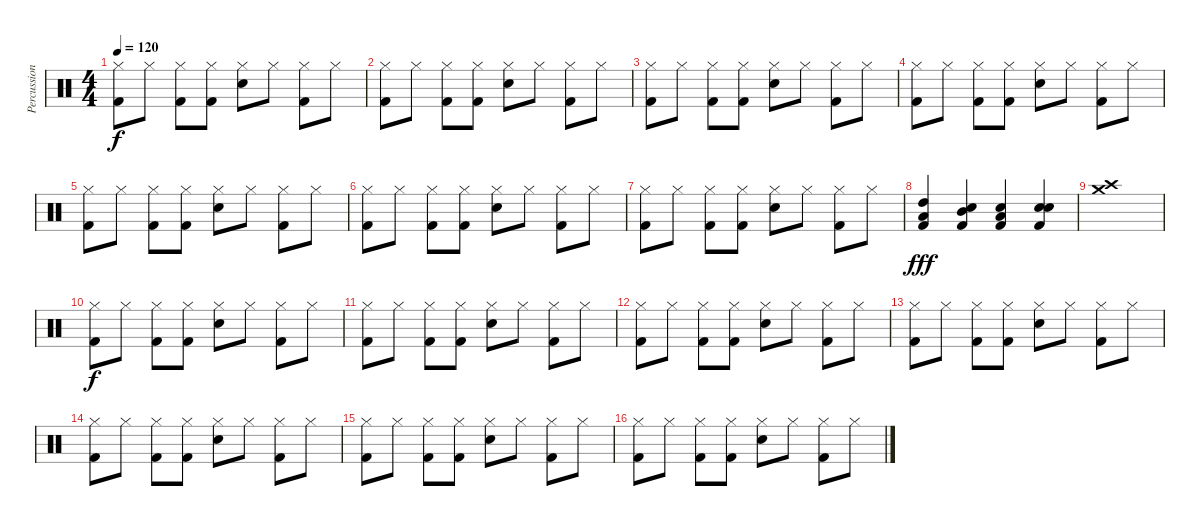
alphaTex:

\track ("Percussions" "Percussion") {instrument percussion}
\staff {score}
\articulation defaults
\ts (4 4)
\tempo 120
\clef neutral
\ks c
("Hi-Hat (closed)" "Kick (hit) 2").8{dy f} "Hi-Hat (closed)".8 ("Hi-Hat (closed)" "Kick (hit) 2").8 ("Hi-Hat (closed)" "Kick (hit) 2").8 ("Hi-Hat (closed)" "Snare (hit) 2").8 "Hi-Hat (closed)".8 ("Hi-Hat (closed)" "Kick (hit) 2").8 "Hi-Hat (closed)".8 |
("Hi-Hat (closed)" "Kick (hit) 2").8 "Hi-Hat (closed)".8 ("Hi-Hat (closed)" "Kick (hit) 2").8 ("Hi-Hat (closed)" "Kick (hit) 2").8 ("Hi-Hat (closed)" "Snare (hit) 2").8 "Hi-Hat (closed)".8 ("Hi-Hat (closed)" "Kick (hit) 2").8 "Hi-Hat (closed)".8 |
("Hi-Hat (closed)" "Kick (hit) 2").8 "Hi-Hat (closed)".8 ("Hi-Hat (closed)" "Kick (hit) 2").8 ("Hi-Hat (closed)" "Kick (hit) 2").8 ("Hi-Hat (closed)" "Snare (hit) 2").8 "Hi-Hat (closed)".8 ("Hi-Hat (closed)" "Kick (hit) 2").8 "Hi-Hat (closed)".8 |
("Hi-Hat (closed)" "Kick (hit) 2").8 "Hi-Hat (closed)".8 ("Hi-Hat (closed)" "Kick (hit) 2").8 ("Hi-Hat (closed)" "Kick (hit) 2").8 ("Hi-Hat (closed)" "Snare (hit) 2").8 "Hi-Hat (closed)".8 ("Hi-Hat (closed)" "Kick (hit) 2").8 "Hi-Hat (closed)".8 |
("Hi-Hat (closed)" "Kick (hit) 2").8 "Hi-Hat (closed)".8 ("Hi-Hat (closed)" "Kick (hit) 2").8 ("Hi-Hat (closed)" "Kick (hit) 2").8 ("Hi-Hat (closed)" "Snare (hit) 2").8 "Hi-Hat (closed)".8 ("Hi-Hat (closed)" "Kick (hit) 2").8 "Hi-Hat (closed)".8 |
("Hi-Hat (closed)" "Kick (hit) 2").8 "Hi-Hat (closed)".8 ("Hi-Hat (closed)" "Kick (hit) 2").8 ("Hi-Hat (closed)" "Kick (hit) 2").8 ("Hi-Hat (closed)" "Snare (hit) 2").8 "Hi-Hat (closed)".8 ("Hi-Hat (closed)" "Kick (hit) 2").8 "Hi-Hat (closed)".8 |
("Hi-Hat (closed)" "Kick (hit) 2").8 "Hi-Hat (closed)".8 ("Hi-Hat (closed)" "Kick (hit) 2").8 ("Hi-Hat (closed)" "Kick (hit) 2").8 ("Hi-Hat (closed)" "Snare (hit) 2").8 "Hi-Hat (closed)".8 ("Hi-Hat (closed)" "Kick (hit) 2").8 "Hi-Hat (closed)".8 |
("High Tom (hit)" "Low Tom (hit)" "Kick (hit) 2").4{dy fff} ("Mid Tom (hit)" "Snare (hit) 2" "Kick (hit) 2").4 ("Snare (hit) 2" "Low Tom (hit)" "Kick (hit) 2").4 ("Snare (hit) 2" "Snare (hit) 2" "Kick (hit) 2").4 |
("Crash high (hit)" "Crash medium (hit)").1 |
("Hi-Hat (closed)" "Kick (hit) 2").8{dy f} "Hi-Hat (closed)".8 ("Hi-Hat (closed)" "Kick (hit) 2").8 ("Hi-Hat (closed)" "Kick (hit) 2").8 ("Hi-Hat (closed)" "Snare (hit) 2").8 "Hi-Hat (closed)".8 ("Hi-Hat (closed)" "Kick (hit) 2").8 "Hi-Hat (closed)".8 |
("Hi-Hat (closed)" "Kick (hit) 2").8 "Hi-Hat (closed)".8 ("Hi-Hat (closed)" "Kick (hit) 2").8 ("Hi-Hat (closed)" "Kick (hit) 2").8 ("Hi-Hat (closed)" "Snare (hit) 2").8 "Hi-Hat (closed)".8 ("Hi-Hat (closed)" "Kick (hit) 2").8 "Hi-Hat (closed)".8 |
("Hi-Hat (closed)" "Kick (hit) 2").8 "Hi-Hat (closed)".8 ("Hi-Hat (closed)" "Kick (hit) 2").8 ("Hi-Hat (closed)" "Kick (hit) 2").8 ("Hi-Hat (closed)" "Snare (hit) 2").8 "Hi-Hat (closed)".8 ("Hi-Hat (closed)" "Kick (hit) 2").8 "Hi-Hat (closed)".8 |
("Hi-Hat (closed)" "Kick (hit) 2").8 "Hi-Hat (closed)".8 ("Hi-Hat (closed)" "Kick (hit) 2").8 ("Hi-Hat (closed)" "Kick (hit) 2").8 ("Hi-Hat (closed)" "Snare (hit) 2").8 "Hi-Hat (closed)".8 ("Hi-Hat (closed)" "Kick (hit) 2").8 "Hi-Hat (closed)".8 |
("Hi-Hat (closed)" "Kick (hit) 2").8 "Hi-Hat (closed)".8 ("Hi-Hat (closed)" "Kick (hit) 2").8 ("Hi-Hat (closed)" "Kick (hit) 2").8 ("Hi-Hat (closed)" "Snare (hit) 2").8 "Hi-Hat (closed)".8 ("Hi-Hat (closed)" "Kick (hit) 2").8 "Hi-Hat (closed)".8 |
("Hi-Hat (closed)" "Kick (hit) 2").8 "Hi-Hat (closed)".8 ("Hi-Hat (closed)" "Kick (hit) 2").8 ("Hi-Hat (closed)" "Kick (hit) 2").8 ("Hi-Hat (closed)" "Snare (hit) 2").8 "Hi-Hat (closed)".8 ("Hi-Hat (closed)" "Kick (hit) 2").8 "Hi-Hat (closed)".8 |
("Hi-Hat (closed)" "Kick (hit) 2").8 "Hi-Hat (closed)".8 ("Hi-Hat (closed)" "Kick (hit) 2").8 ("Hi-Hat (closed)" "Kick (hit) 2").8 ("Hi-Hat (closed)" "Snare (hit) 2").8 "Hi-Hat (closed)".8 ("Hi-Hat (closed)" "Kick (hit) 2").8 "Hi-Hat (closed)".8
